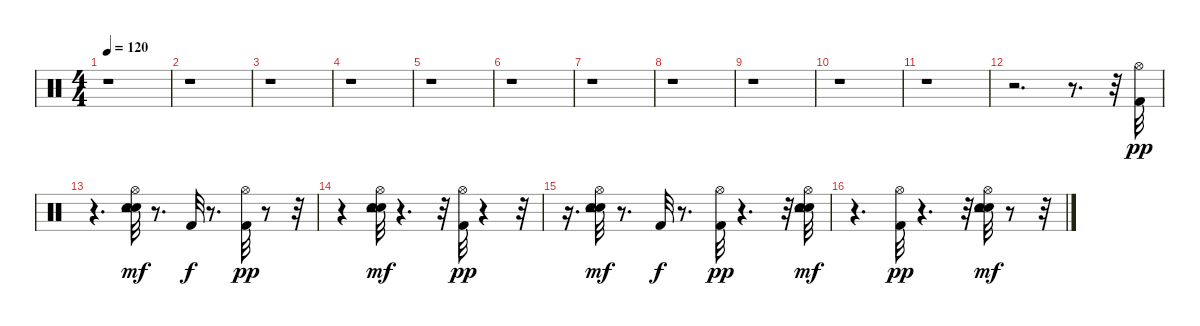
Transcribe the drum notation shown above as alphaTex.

\track "" {instrument percussion}
\staff {score}
\articulation defaults
\ts (4 4)
\tempo 120
\clef neutral
\ks c
r.1{dy ppp} |
r.1 |
r.1 |
r.1 |
r.1 |
r.1 |
r.1 |
r.1 |
r.1 |
r.1 |
r.1 |
r.2{d} r.8{d} r.32 ("Kick (hit) 2" "Hi-Hat (open)").32{dy pp} |
r.4{d} ("Snare (hit) 2" "Electric Snare (hit)" "Hi-Hat (open)" "Tambourine (hit)").32{dy mf} r.8{d} "Kick (hit) 2".32{dy f} r.8{d} ("Kick (hit) 2" "Hi-Hat (open)").32{dy pp} r.8 r.32 |
r.4 ("Snare (hit) 2" "Electric Snare (hit)" "Hi-Hat (open)" "Tambourine (hit)").32{dy mf} r.4{d} r.32 ("Kick (hit) 2" "Hi-Hat (open)").32{dy pp} r.4 r.32 |
r.16{d} ("Snare (hit) 2" "Electric Snare (hit)" "Hi-Hat (open)" "Tambourine (hit)").32{dy mf} r.8{d} "Kick (hit) 2".32{dy f} r.8{d} ("Kick (hit) 2" "Hi-Hat (open)").32{dy pp} r.4{d} r.32 ("Snare (hit) 2" "Electric Snare (hit)" "Hi-Hat (open)" "Tambourine (hit)").32{dy mf} |
r.4{d} ("Kick (hit) 2" "Hi-Hat (open)").32{dy pp} r.4{d} r.32 ("Snare (hit) 2" "Electric Snare (hit)" "Hi-Hat (open)" "Tambourine (hit)").32{dy mf} r.8 r.32
